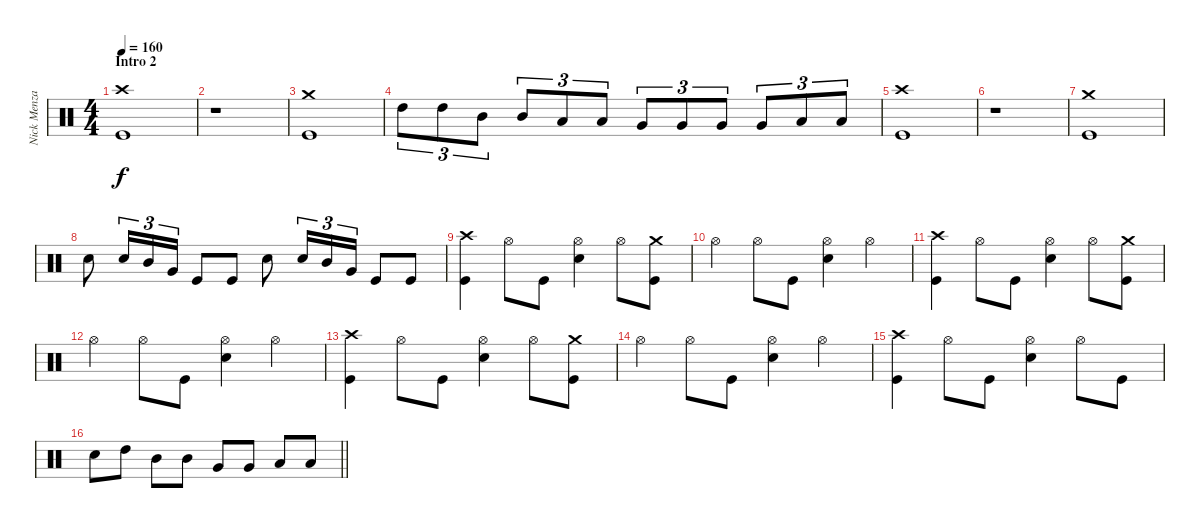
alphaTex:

\track ("Nick Menza" "Nick Menza") {instrument percussion}
\staff {score}
\articulation defaults
\ts (4 4)
\section ("" "Intro 2")
\tempo 160
\clef neutral
\ks c
("Crash high (hit)" "Kick (hit)").1{dy f} |
r.1 |
("Crash medium (hit)" "Kick (hit)").1 |
"High Tom (hit)".8{tu (3 2)} "High Tom (hit)".8{tu (3 2)} "Mid Tom (hit)".8{tu (3 2)} "Mid Tom (hit)".8{tu (3 2)} "Low Tom (hit)".8{tu (3 2)} "Low Tom (hit)".8{tu (3 2)} "Very Low Tom (hit)".8{tu (3 2)} "Very Low Tom (hit)".8{tu (3 2)} "Very Low Tom (hit)".8{tu (3 2)} "Very Low Tom (hit)".8{tu (3 2)} "Low Floor Tom (hit)".8{tu (3 2)} "Low Floor Tom (hit)".8{tu (3 2)} |
("Crash high (hit)" "Kick (hit)").1 |
r.1 |
("Crash medium (hit)" "Kick (hit)").1 |
"Snare (hit) 2".8 "Snare (hit) 2".16{tu (3 2)} "Mid Tom (hit)".16{tu (3 2)} "Very Low Tom (hit)".16{tu (3 2)} "Kick (hit)".8 "Kick (hit)".8 "Snare (hit) 2".8 "Snare (hit) 2".16{tu (3 2)} "Mid Tom (hit)".16{tu (3 2)} "Very Low Tom (hit)".16{tu (3 2)} "Kick (hit)".8 "Kick (hit)".8 |
("Crash high (hit)" "Kick (hit)").4 "Hi-Hat (open)".8 "Kick (hit)".8 ("Hi-Hat (open)" "Snare (hit) 2").4 "Hi-Hat (open)".8 ("Crash medium (hit)" "Kick (hit)").8 |
"Hi-Hat (open)".4 "Hi-Hat (open)".8 "Kick (hit)".8 ("Hi-Hat (open)" "Snare (hit) 2").4 "Hi-Hat (open)".4 |
("Crash high (hit)" "Kick (hit)").4 "Hi-Hat (open)".8 "Kick (hit)".8 ("Hi-Hat (open)" "Snare (hit) 2").4 "Hi-Hat (open)".8 ("Crash medium (hit)" "Kick (hit)").8 |
"Hi-Hat (open)".4 "Hi-Hat (open)".8 "Kick (hit)".8 ("Hi-Hat (open)" "Snare (hit) 2").4 "Hi-Hat (open)".4 |
("Crash high (hit)" "Kick (hit)").4 "Hi-Hat (open)".8 "Kick (hit)".8 ("Hi-Hat (open)" "Snare (hit) 2").4 "Hi-Hat (open)".8 ("Crash medium (hit)" "Kick (hit)").8 |
"Hi-Hat (open)".4 "Hi-Hat (open)".8 "Kick (hit)".8 ("Hi-Hat (open)" "Snare (hit) 2").4 "Hi-Hat (open)".4 |
("Crash high (hit)" "Kick (hit)").4 "Hi-Hat (open)".8 "Kick (hit)".8 ("Hi-Hat (open)" "Snare (hit) 2").4 "Hi-Hat (open)".8 "Kick (hit)".8 |
\barLineRight lightlight "Snare (hit) 2".8 "High Tom (hit)".8 "Mid Tom (hit)".8 "Mid Tom (hit)".8 "Very Low Tom (hit)".8 "Very Low Tom (hit)".8 "Low Floor Tom (hit)".8 "Low Floor Tom (hit)".8
